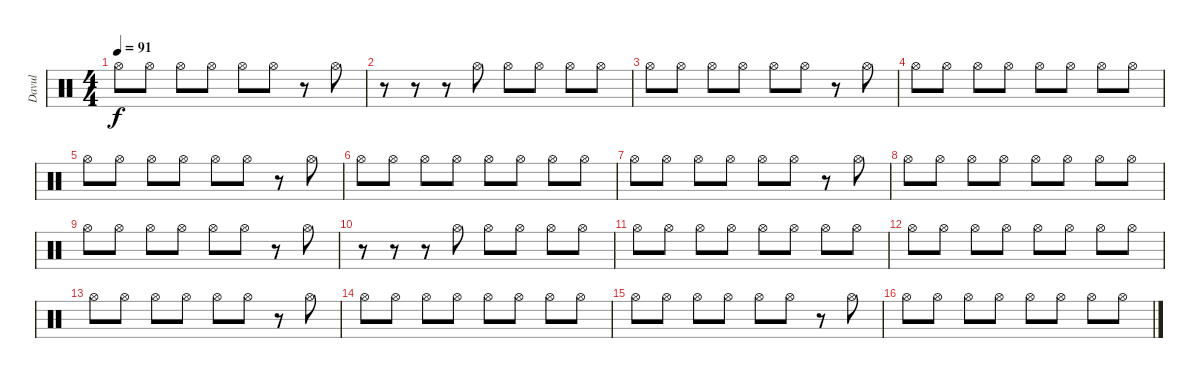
\track ("Davul" "Davul") {instrument percussion}
\staff {score}
\articulation defaults
\ts (4 4)
\tempo 91
\clef neutral
\ks c "Hi-Hat (open)".8{dy f} "Hi-Hat (open)".8 "Hi-Hat (open)".8 "Hi-Hat (open)".8 "Hi-Hat (open)".8 "Hi-Hat (open)".8
r.8 "Hi-Hat (open)".8 |
r.8 r.8 r.8 "Hi-Hat (open)".8 "Hi-Hat (open)".8 "Hi-Hat (open)".8 "Hi-Hat (open)".8 "Hi-Hat (open)".8 |
"Hi-Hat (open)".8 "Hi-Hat (open)".8 "Hi-Hat (open)".8 "Hi-Hat (open)".8 "Hi-Hat (open)".8 "Hi-Hat (open)".8 r.8 "Hi-Hat (open)".8 |
"Hi-Hat (open)".8 "Hi-Hat (open)".8 "Hi-Hat (open)".8 "Hi-Hat (open)".8 "Hi-Hat (open)".8 "Hi-Hat (open)".8 "Hi-Hat (open)".8 "Hi-Hat (open)".8 |
"Hi-Hat (open)".8 "Hi-Hat (open)".8 "Hi-Hat (open)".8 "Hi-Hat (open)".8 "Hi-Hat (open)".8 "Hi-Hat (open)".8 r.8 "Hi-Hat (open)".8 |
"Hi-Hat (open)".8 "Hi-Hat (open)".8 "Hi-Hat (open)".8 "Hi-Hat (open)".8 "Hi-Hat (open)".8 "Hi-Hat (open)".8 "Hi-Hat (open)".8 "Hi-Hat (open)".8 |
"Hi-Hat (open)".8 "Hi-Hat (open)".8 "Hi-Hat (open)".8 "Hi-Hat (open)".8 "Hi-Hat (open)".8 "Hi-Hat (open)".8 r.8 "Hi-Hat (open)".8 |
"Hi-Hat (open)".8 "Hi-Hat (open)".8 "Hi-Hat (open)".8 "Hi-Hat (open)".8 "Hi-Hat (open)".8 "Hi-Hat (open)".8 "Hi-Hat (open)".8 "Hi-Hat (open)".8 |
"Hi-Hat (open)".8 "Hi-Hat (open)".8 "Hi-Hat (open)".8 "Hi-Hat (open)".8 "Hi-Hat (open)".8 "Hi-Hat (open)".8 r.8 "Hi-Hat (open)".8 |
r.8 r.8 r.8 "Hi-Hat (open)".8 "Hi-Hat (open)".8 "Hi-Hat (open)".8 "Hi-Hat (open)".8 "Hi-Hat (open)".8 |
"Hi-Hat (open)".8 "Hi-Hat (open)".8 "Hi-Hat (open)".8 "Hi-Hat (open)".8 "Hi-Hat (open)".8 "Hi-Hat (open)".8 "Hi-Hat (open)".8 "Hi-Hat (open)".8 |
"Hi-Hat (open)".8 "Hi-Hat (open)".8 "Hi-Hat (open)".8 "Hi-Hat (open)".8 "Hi-Hat (open)".8 "Hi-Hat (open)".8 "Hi-Hat (open)".8 "Hi-Hat (open)".8 |
"Hi-Hat (open)".8 "Hi-Hat (open)".8 "Hi-Hat (open)".8 "Hi-Hat (open)".8 "Hi-Hat (open)".8 "Hi-Hat (open)".8 r.8 "Hi-Hat (open)".8 |
"Hi-Hat (open)".8 "Hi-Hat (open)".8 "Hi-Hat (open)".8 "Hi-Hat (open)".8 "Hi-Hat (open)".8 "Hi-Hat (open)".8 "Hi-Hat (open)".8 "Hi-Hat (open)".8 |
"Hi-Hat (open)".8 "Hi-Hat (open)".8 "Hi-Hat (open)".8 "Hi-Hat (open)".8 "Hi-Hat (open)".8 "Hi-Hat (open)".8 r.8 "Hi-Hat (open)".8 |
"Hi-Hat (open)".8 "Hi-Hat (open)".8 "Hi-Hat (open)".8 "Hi-Hat (open)".8 "Hi-Hat (open)".8 "Hi-Hat (open)".8 "Hi-Hat (open)".8 "Hi-Hat (open)".8
